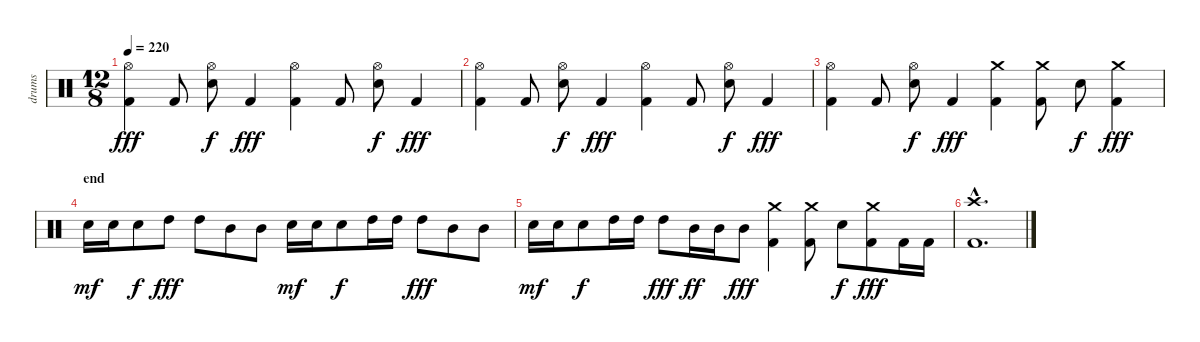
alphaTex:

\track ("drums" "drums") {instrument percussion}
\staff {score}
\articulation defaults
\ts (12 8)
\tempo 220
\clef neutral
\ks c
("Hi-Hat (open)" "Kick (hit) 2").4{dy fff} "Kick (hit) 2".8 ("Hi-Hat (open)" "Snare (hit) 2").8{dy f} "Kick (hit) 2".4{dy fff} ("Hi-Hat (open)" "Kick (hit) 2").4 "Kick (hit) 2".8 ("Hi-Hat (open)" "Snare (hit) 2").8{dy f} "Kick (hit) 2".4{dy fff} |
("Hi-Hat (open)" "Kick (hit) 2").4 "Kick (hit) 2".8 ("Hi-Hat (open)" "Snare (hit) 2").8{dy f} "Kick (hit) 2".4{dy fff} ("Hi-Hat (open)" "Kick (hit) 2").4 "Kick (hit) 2".8 ("Hi-Hat (open)" "Snare (hit) 2").8{dy f} "Kick (hit) 2".4{dy fff} |
("Hi-Hat (open)" "Kick (hit) 2").4 "Kick (hit) 2".8 ("Hi-Hat (open)" "Snare (hit) 2").8{dy f} "Kick (hit) 2".4{dy fff} ("Crash medium (hit)" "Kick (hit) 2").4 ("Crash medium (hit)" "Kick (hit) 2").8 "Snare (hit) 2".8{dy f} ("Crash medium (hit)" "Kick (hit) 2").4{dy fff} |
\section ("" "end")
"Snare (hit) 2".16{dy mf} "Snare (hit) 2".16 "Snare (hit) 2".8{dy f} "High Tom (hit)".8{dy fff} "High Tom (hit)".8 "Mid Tom (hit)".8 "Mid Tom (hit)".8 "Snare (hit) 2".16{dy mf} "Snare (hit) 2".16 "Snare (hit) 2".8{dy f} "High Tom (hit)".16 "High Tom (hit)".16 "High Tom (hit)".8{dy fff} "Mid Tom (hit)".8 "Mid Tom (hit)".8 |
"Snare (hit) 2".16{dy mf} "Snare (hit) 2".16 "Snare (hit) 2".8{dy f} "High Tom (hit)".16 "High Tom (hit)".16 "High Tom (hit)".8{dy fff} "Mid Tom (hit)".16{dy ff} "Mid Tom (hit)".16 "Mid Tom (hit)".8{dy fff} ("Crash medium (hit)" "Kick (hit) 2").4 ("Crash medium (hit)" "Kick (hit) 2").8 "Snare (hit) 2".8{dy f} ("Crash medium (hit)" "Kick (hit) 2").8{dy fff} "Kick (hit) 2".16 "Kick (hit) 2".16 |
("Crash high (hit)"{hac} "Kick (hit) 2"{hac}).1{d}
